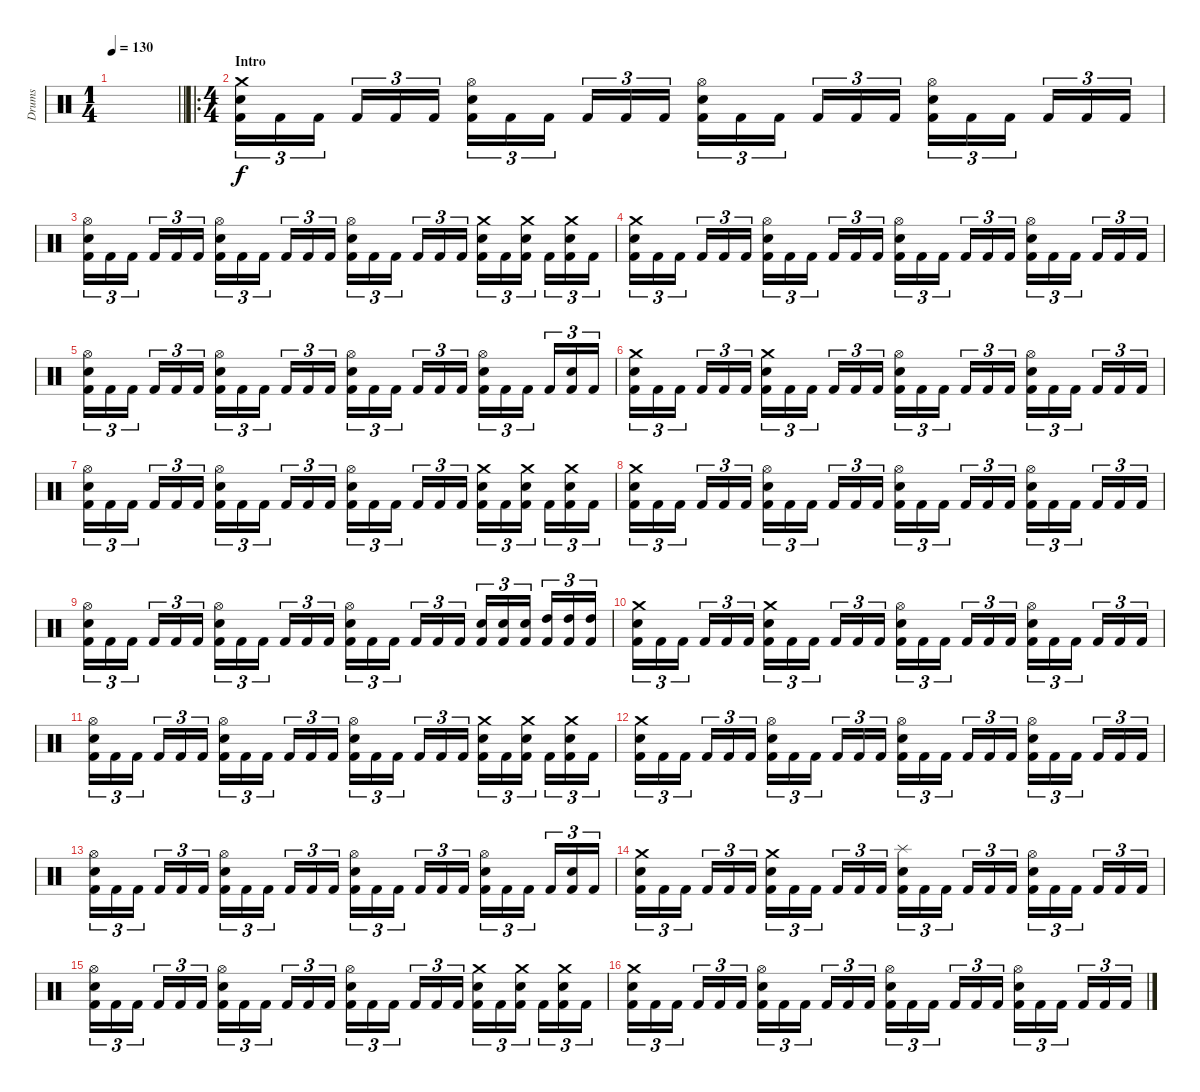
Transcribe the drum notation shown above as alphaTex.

\track ("Drums" "Drums") {instrument percussion}
\staff {score}
\articulation defaults
\ts (1 4)
\tempo 130
\clef neutral
\barLineRight lightlight
\ks c
|
\ro
\ts (4 4)
\section ("" "Intro")
("Kick (hit) 2" "Electric Snare (hit)" "Crash medium (hit)").16{tu (3 2)} "Kick (hit) 2".16{tu (3 2)} "Kick (hit) 2".16{tu (3 2)} "Kick (hit) 2".16{tu (3 2)} "Kick (hit) 2".16{tu (3 2)} "Kick (hit) 2".16{tu (3 2)} ("Kick (hit) 2" "Electric Snare (hit)" "Hi-Hat (open)").16{tu (3 2)} "Kick (hit) 2".16{tu (3 2)} "Kick (hit) 2".16{tu (3 2)} "Kick (hit) 2".16{tu (3 2)} "Kick (hit) 2".16{tu (3 2)} "Kick (hit) 2".16{tu (3 2)} ("Kick (hit) 2" "Electric Snare (hit)" "Hi-Hat (open)").16{tu (3 2)} "Kick (hit) 2".16{tu (3 2)} "Kick (hit) 2".16{tu (3 2)} "Kick (hit) 2".16{tu (3 2)} "Kick (hit) 2".16{tu (3 2)} "Kick (hit) 2".16{tu (3 2)} ("Kick (hit) 2" "Electric Snare (hit)" "Hi-Hat (open)").16{tu (3 2)} "Kick (hit) 2".16{tu (3 2)} "Kick (hit) 2".16{tu (3 2)} "Kick (hit) 2".16{tu (3 2)} "Kick (hit) 2".16{tu (3 2)} "Kick (hit) 2".16{tu (3 2)} |
("Kick (hit) 2" "Electric Snare (hit)" "Hi-Hat (open)").16{tu (3 2)} "Kick (hit) 2".16{tu (3 2)} "Kick (hit) 2".16{tu (3 2)} "Kick (hit) 2".16{tu (3 2)} "Kick (hit) 2".16{tu (3 2)} "Kick (hit) 2".16{tu (3 2)} ("Kick (hit) 2" "Electric Snare (hit)" "Hi-Hat (open)").16{tu (3 2)} "Kick (hit) 2".16{tu (3 2)} "Kick (hit) 2".16{tu (3 2)} "Kick (hit) 2".16{tu (3 2)} "Kick (hit) 2".16{tu (3 2)} "Kick (hit) 2".16{tu (3 2)} ("Kick (hit) 2" "Electric Snare (hit)" "Hi-Hat (open)").16{tu (3 2)} "Kick (hit) 2".16{tu (3 2)} "Kick (hit) 2".16{tu (3 2)} "Kick (hit) 2".16{tu (3 2)} "Kick (hit) 2".16{tu (3 2)} "Kick (hit) 2".16{tu (3 2)} ("Kick (hit) 2" "Electric Snare (hit)" "Crash medium (hit)").16{tu (3 2)} "Kick (hit) 2".16{tu (3 2)} ("Kick (hit) 2" "Electric Snare (hit)" "Crash medium (hit)").16{tu (3 2)} "Kick (hit) 2".16{tu (3 2)} ("Kick (hit) 2" "Electric Snare (hit)" "Crash medium (hit)").16{tu (3 2)} "Kick (hit) 2".16{tu (3 2)} |
("Kick (hit) 2" "Electric Snare (hit)" "Crash medium (hit)").16{tu (3 2)} "Kick (hit) 2".16{tu (3 2)} "Kick (hit) 2".16{tu (3 2)} "Kick (hit) 2".16{tu (3 2)} "Kick (hit) 2".16{tu (3 2)} "Kick (hit) 2".16{tu (3 2)} ("Kick (hit) 2" "Electric Snare (hit)" "Hi-Hat (open)").16{tu (3 2)} "Kick (hit) 2".16{tu (3 2)} "Kick (hit) 2".16{tu (3 2)} "Kick (hit) 2".16{tu (3 2)} "Kick (hit) 2".16{tu (3 2)} "Kick (hit) 2".16{tu (3 2)} ("Kick (hit) 2" "Electric Snare (hit)" "Hi-Hat (open)").16{tu (3 2)} "Kick (hit) 2".16{tu (3 2)} "Kick (hit) 2".16{tu (3 2)} "Kick (hit) 2".16{tu (3 2)} "Kick (hit) 2".16{tu (3 2)} "Kick (hit) 2".16{tu (3 2)} ("Kick (hit) 2" "Electric Snare (hit)" "Hi-Hat (open)").16{tu (3 2)} "Kick (hit) 2".16{tu (3 2)} "Kick (hit) 2".16{tu (3 2)} "Kick (hit) 2".16{tu (3 2)} "Kick (hit) 2".16{tu (3 2)} "Kick (hit) 2".16{tu (3 2)} |
("Kick (hit) 2" "Electric Snare (hit)" "Hi-Hat (open)").16{tu (3 2)} "Kick (hit) 2".16{tu (3 2)} "Kick (hit) 2".16{tu (3 2)} "Kick (hit) 2".16{tu (3 2)} "Kick (hit) 2".16{tu (3 2)} "Kick (hit) 2".16{tu (3 2)} ("Kick (hit) 2" "Electric Snare (hit)" "Hi-Hat (open)").16{tu (3 2)} "Kick (hit) 2".16{tu (3 2)} "Kick (hit) 2".16{tu (3 2)} "Kick (hit) 2".16{tu (3 2)} "Kick (hit) 2".16{tu (3 2)} "Kick (hit) 2".16{tu (3 2)} ("Kick (hit) 2" "Electric Snare (hit)" "Hi-Hat (open)").16{tu (3 2)} "Kick (hit) 2".16{tu (3 2)} "Kick (hit) 2".16{tu (3 2)} "Kick (hit) 2".16{tu (3 2)} "Kick (hit) 2".16{tu (3 2)} "Kick (hit) 2".16{tu (3 2)} ("Kick (hit) 2" "Electric Snare (hit)" "Hi-Hat (open)").16{tu (3 2)} "Kick (hit) 2".16{tu (3 2)} "Kick (hit) 2".16{tu (3 2)} "Kick (hit) 2".16{tu (3 2)} ("Kick (hit) 2" "Electric Snare (hit)").16{tu (3 2)} "Kick (hit) 2".16{tu (3 2)} |
("Kick (hit) 2" "Electric Snare (hit)" "Crash medium (hit)").16{tu (3 2)} "Kick (hit) 2".16{tu (3 2)} "Kick (hit) 2".16{tu (3 2)} "Kick (hit) 2".16{tu (3 2)} "Kick (hit) 2".16{tu (3 2)} "Kick (hit) 2".16{tu (3 2)} ("Kick (hit) 2" "Electric Snare (hit)" "Crash medium (hit)").16{tu (3 2)} "Kick (hit) 2".16{tu (3 2)} "Kick (hit) 2".16{tu (3 2)} "Kick (hit) 2".16{tu (3 2)} "Kick (hit) 2".16{tu (3 2)} "Kick (hit) 2".16{tu (3 2)} ("Kick (hit) 2" "Electric Snare (hit)" "Hi-Hat (open)").16{tu (3 2)} "Kick (hit) 2".16{tu (3 2)} "Kick (hit) 2".16{tu (3 2)} "Kick (hit) 2".16{tu (3 2)} "Kick (hit) 2".16{tu (3 2)} "Kick (hit) 2".16{tu (3 2)} ("Kick (hit) 2" "Electric Snare (hit)" "Hi-Hat (open)").16{tu (3 2)} "Kick (hit) 2".16{tu (3 2)} "Kick (hit) 2".16{tu (3 2)} "Kick (hit) 2".16{tu (3 2)} "Kick (hit) 2".16{tu (3 2)} "Kick (hit) 2".16{tu (3 2)} |
("Kick (hit) 2" "Electric Snare (hit)" "Hi-Hat (open)").16{tu (3 2)} "Kick (hit) 2".16{tu (3 2)} "Kick (hit) 2".16{tu (3 2)} "Kick (hit) 2".16{tu (3 2)} "Kick (hit) 2".16{tu (3 2)} "Kick (hit) 2".16{tu (3 2)} ("Kick (hit) 2" "Electric Snare (hit)" "Hi-Hat (open)").16{tu (3 2)} "Kick (hit) 2".16{tu (3 2)} "Kick (hit) 2".16{tu (3 2)} "Kick (hit) 2".16{tu (3 2)} "Kick (hit) 2".16{tu (3 2)} "Kick (hit) 2".16{tu (3 2)} ("Kick (hit) 2" "Electric Snare (hit)" "Hi-Hat (open)").16{tu (3 2)} "Kick (hit) 2".16{tu (3 2)} "Kick (hit) 2".16{tu (3 2)} "Kick (hit) 2".16{tu (3 2)} "Kick (hit) 2".16{tu (3 2)} "Kick (hit) 2".16{tu (3 2)} ("Kick (hit) 2" "Electric Snare (hit)" "Crash medium (hit)").16{tu (3 2)} "Kick (hit) 2".16{tu (3 2)} ("Kick (hit) 2" "Electric Snare (hit)" "Crash medium (hit)").16{tu (3 2)} "Kick (hit) 2".16{tu (3 2)} ("Kick (hit) 2" "Electric Snare (hit)" "Crash medium (hit)").16{tu (3 2)} "Kick (hit) 2".16{tu (3 2)} |
("Kick (hit) 2" "Electric Snare (hit)" "Crash medium (hit)").16{tu (3 2)} "Kick (hit) 2".16{tu (3 2)} "Kick (hit) 2".16{tu (3 2)} "Kick (hit) 2".16{tu (3 2)} "Kick (hit) 2".16{tu (3 2)} "Kick (hit) 2".16{tu (3 2)} ("Kick (hit) 2" "Electric Snare (hit)" "Hi-Hat (open)").16{tu (3 2)} "Kick (hit) 2".16{tu (3 2)} "Kick (hit) 2".16{tu (3 2)} "Kick (hit) 2".16{tu (3 2)} "Kick (hit) 2".16{tu (3 2)} "Kick (hit) 2".16{tu (3 2)} ("Kick (hit) 2" "Electric Snare (hit)" "Hi-Hat (open)").16{tu (3 2)} "Kick (hit) 2".16{tu (3 2)} "Kick (hit) 2".16{tu (3 2)} "Kick (hit) 2".16{tu (3 2)} "Kick (hit) 2".16{tu (3 2)} "Kick (hit) 2".16{tu (3 2)} ("Kick (hit) 2" "Electric Snare (hit)" "Hi-Hat (open)").16{tu (3 2)} "Kick (hit) 2".16{tu (3 2)} "Kick (hit) 2".16{tu (3 2)} "Kick (hit) 2".16{tu (3 2)} "Kick (hit) 2".16{tu (3 2)} "Kick (hit) 2".16{tu (3 2)} |
("Kick (hit) 2" "Electric Snare (hit)" "Hi-Hat (open)").16{tu (3 2)} "Kick (hit) 2".16{tu (3 2)} "Kick (hit) 2".16{tu (3 2)} "Kick (hit) 2".16{tu (3 2)} "Kick (hit) 2".16{tu (3 2)} "Kick (hit) 2".16{tu (3 2)} ("Kick (hit) 2" "Electric Snare (hit)" "Hi-Hat (open)").16{tu (3 2)} "Kick (hit) 2".16{tu (3 2)} "Kick (hit) 2".16{tu (3 2)} "Kick (hit) 2".16{tu (3 2)} "Kick (hit) 2".16{tu (3 2)} "Kick (hit) 2".16{tu (3 2)} ("Kick (hit) 2" "Electric Snare (hit)" "Hi-Hat (open)").16{tu (3 2)} "Kick (hit) 2".16{tu (3 2)} "Kick (hit) 2".16{tu (3 2)} "Kick (hit) 2".16{tu (3 2)} "Kick (hit) 2".16{tu (3 2)} "Kick (hit) 2".16{tu (3 2)} ("Kick (hit) 2" "Electric Snare (hit)").16{tu (3 2)} ("Kick (hit) 2" "Electric Snare (hit)").16{tu (3 2)} ("Kick (hit) 2" "Electric Snare (hit)").16{tu (3 2)} ("Kick (hit) 2" "High Tom (hit)").16{tu (3 2)} ("Kick (hit) 2" "High Tom (hit)").16{tu (3 2)} ("Kick (hit) 2" "High Tom (hit)").16{tu (3 2)} |
("Kick (hit) 2" "Electric Snare (hit)" "Crash medium (hit)").16{tu (3 2)} "Kick (hit) 2".16{tu (3 2)} "Kick (hit) 2".16{tu (3 2)} "Kick (hit) 2".16{tu (3 2)} "Kick (hit) 2".16{tu (3 2)} "Kick (hit) 2".16{tu (3 2)} ("Kick (hit) 2" "Electric Snare (hit)" "Crash medium (hit)").16{tu (3 2)} "Kick (hit) 2".16{tu (3 2)} "Kick (hit) 2".16{tu (3 2)} "Kick (hit) 2".16{tu (3 2)} "Kick (hit) 2".16{tu (3 2)} "Kick (hit) 2".16{tu (3 2)} ("Kick (hit) 2" "Electric Snare (hit)" "Hi-Hat (open)").16{tu (3 2)} "Kick (hit) 2".16{tu (3 2)} "Kick (hit) 2".16{tu (3 2)} "Kick (hit) 2".16{tu (3 2)} "Kick (hit) 2".16{tu (3 2)} "Kick (hit) 2".16{tu (3 2)} ("Kick (hit) 2" "Electric Snare (hit)" "Hi-Hat (open)").16{tu (3 2)} "Kick (hit) 2".16{tu (3 2)} "Kick (hit) 2".16{tu (3 2)} "Kick (hit) 2".16{tu (3 2)} "Kick (hit) 2".16{tu (3 2)} "Kick (hit) 2".16{tu (3 2)} |
("Kick (hit) 2" "Electric Snare (hit)" "Hi-Hat (open)").16{tu (3 2)} "Kick (hit) 2".16{tu (3 2)} "Kick (hit) 2".16{tu (3 2)} "Kick (hit) 2".16{tu (3 2)} "Kick (hit) 2".16{tu (3 2)} "Kick (hit) 2".16{tu (3 2)} ("Kick (hit) 2" "Electric Snare (hit)" "Hi-Hat (open)").16{tu (3 2)} "Kick (hit) 2".16{tu (3 2)} "Kick (hit) 2".16{tu (3 2)} "Kick (hit) 2".16{tu (3 2)} "Kick (hit) 2".16{tu (3 2)} "Kick (hit) 2".16{tu (3 2)} ("Kick (hit) 2" "Electric Snare (hit)" "Hi-Hat (open)").16{tu (3 2)} "Kick (hit) 2".16{tu (3 2)} "Kick (hit) 2".16{tu (3 2)} "Kick (hit) 2".16{tu (3 2)} "Kick (hit) 2".16{tu (3 2)} "Kick (hit) 2".16{tu (3 2)} ("Kick (hit) 2" "Electric Snare (hit)" "Crash medium (hit)").16{tu (3 2)} "Kick (hit) 2".16{tu (3 2)} ("Kick (hit) 2" "Electric Snare (hit)" "Crash medium (hit)").16{tu (3 2)} "Kick (hit) 2".16{tu (3 2)} ("Kick (hit) 2" "Electric Snare (hit)" "Crash medium (hit)").16{tu (3 2)} "Kick (hit) 2".16{tu (3 2)} |
("Kick (hit) 2" "Electric Snare (hit)" "Crash medium (hit)").16{tu (3 2)} "Kick (hit) 2".16{tu (3 2)} "Kick (hit) 2".16{tu (3 2)} "Kick (hit) 2".16{tu (3 2)} "Kick (hit) 2".16{tu (3 2)} "Kick (hit) 2".16{tu (3 2)} ("Kick (hit) 2" "Electric Snare (hit)" "Hi-Hat (open)").16{tu (3 2)} "Kick (hit) 2".16{tu (3 2)} "Kick (hit) 2".16{tu (3 2)} "Kick (hit) 2".16{tu (3 2)} "Kick (hit) 2".16{tu (3 2)} "Kick (hit) 2".16{tu (3 2)} ("Kick (hit) 2" "Electric Snare (hit)" "Hi-Hat (open)").16{tu (3 2)} "Kick (hit) 2".16{tu (3 2)} "Kick (hit) 2".16{tu (3 2)} "Kick (hit) 2".16{tu (3 2)} "Kick (hit) 2".16{tu (3 2)} "Kick (hit) 2".16{tu (3 2)} ("Kick (hit) 2" "Electric Snare (hit)" "Hi-Hat (open)").16{tu (3 2)} "Kick (hit) 2".16{tu (3 2)} "Kick (hit) 2".16{tu (3 2)} "Kick (hit) 2".16{tu (3 2)} "Kick (hit) 2".16{tu (3 2)} "Kick (hit) 2".16{tu (3 2)} |
("Kick (hit) 2" "Electric Snare (hit)" "Hi-Hat (open)").16{tu (3 2)} "Kick (hit) 2".16{tu (3 2)} "Kick (hit) 2".16{tu (3 2)} "Kick (hit) 2".16{tu (3 2)} "Kick (hit) 2".16{tu (3 2)} "Kick (hit) 2".16{tu (3 2)} ("Kick (hit) 2" "Electric Snare (hit)" "Hi-Hat (open)").16{tu (3 2)} "Kick (hit) 2".16{tu (3 2)} "Kick (hit) 2".16{tu (3 2)} "Kick (hit) 2".16{tu (3 2)} "Kick (hit) 2".16{tu (3 2)} "Kick (hit) 2".16{tu (3 2)} ("Kick (hit) 2" "Electric Snare (hit)" "Hi-Hat (open)").16{tu (3 2)} "Kick (hit) 2".16{tu (3 2)} "Kick (hit) 2".16{tu (3 2)} "Kick (hit) 2".16{tu (3 2)} "Kick (hit) 2".16{tu (3 2)} "Kick (hit) 2".16{tu (3 2)} ("Kick (hit) 2" "Electric Snare (hit)" "Hi-Hat (open)").16{tu (3 2)} "Kick (hit) 2".16{tu (3 2)} "Kick (hit) 2".16{tu (3 2)} "Kick (hit) 2".16{tu (3 2)} ("Kick (hit) 2" "Electric Snare (hit)").16{tu (3 2)} "Kick (hit) 2".16{tu (3 2)} |
("Kick (hit) 2" "Electric Snare (hit)" "Crash medium (hit)").16{tu (3 2)} "Kick (hit) 2".16{tu (3 2)} "Kick (hit) 2".16{tu (3 2)} "Kick (hit) 2".16{tu (3 2)} "Kick (hit) 2".16{tu (3 2)} "Kick (hit) 2".16{tu (3 2)} ("Kick (hit) 2" "Electric Snare (hit)" "Crash medium (hit)").16{tu (3 2)} "Kick (hit) 2".16{tu (3 2)} "Kick (hit) 2".16{tu (3 2)} "Kick (hit) 2".16{tu (3 2)} "Kick (hit) 2".16{tu (3 2)} "Kick (hit) 2".16{tu (3 2)} ("Kick (hit) 2" "Electric Snare (hit)" "Splash (hit)").16{tu (3 2)} "Kick (hit) 2".16{tu (3 2)} "Kick (hit) 2".16{tu (3 2)} "Kick (hit) 2".16{tu (3 2)} "Kick (hit) 2".16{tu (3 2)} "Kick (hit) 2".16{tu (3 2)} ("Kick (hit) 2" "Electric Snare (hit)" "Hi-Hat (open)").16{tu (3 2)} "Kick (hit) 2".16{tu (3 2)} "Kick (hit) 2".16{tu (3 2)} "Kick (hit) 2".16{tu (3 2)} "Kick (hit) 2".16{tu (3 2)} "Kick (hit) 2".16{tu (3 2)} |
("Kick (hit) 2" "Electric Snare (hit)" "Hi-Hat (open)").16{tu (3 2)} "Kick (hit) 2".16{tu (3 2)} "Kick (hit) 2".16{tu (3 2)} "Kick (hit) 2".16{tu (3 2)} "Kick (hit) 2".16{tu (3 2)} "Kick (hit) 2".16{tu (3 2)} ("Kick (hit) 2" "Electric Snare (hit)" "Hi-Hat (open)").16{tu (3 2)} "Kick (hit) 2".16{tu (3 2)} "Kick (hit) 2".16{tu (3 2)} "Kick (hit) 2".16{tu (3 2)} "Kick (hit) 2".16{tu (3 2)} "Kick (hit) 2".16{tu (3 2)} ("Kick (hit) 2" "Electric Snare (hit)" "Hi-Hat (open)").16{tu (3 2)} "Kick (hit) 2".16{tu (3 2)} "Kick (hit) 2".16{tu (3 2)} "Kick (hit) 2".16{tu (3 2)} "Kick (hit) 2".16{tu (3 2)} "Kick (hit) 2".16{tu (3 2)} ("Kick (hit) 2" "Electric Snare (hit)" "Crash medium (hit)").16{tu (3 2)} "Kick (hit) 2".16{tu (3 2)} ("Kick (hit) 2" "Electric Snare (hit)" "Crash medium (hit)").16{tu (3 2)} "Kick (hit) 2".16{tu (3 2)} ("Kick (hit) 2" "Electric Snare (hit)" "Crash medium (hit)").16{tu (3 2)} "Kick (hit) 2".16{tu (3 2)} |
("Kick (hit) 2" "Electric Snare (hit)" "Crash medium (hit)").16{tu (3 2)} "Kick (hit) 2".16{tu (3 2)} "Kick (hit) 2".16{tu (3 2)} "Kick (hit) 2".16{tu (3 2)} "Kick (hit) 2".16{tu (3 2)} "Kick (hit) 2".16{tu (3 2)} ("Kick (hit) 2" "Electric Snare (hit)" "Hi-Hat (open)").16{tu (3 2)} "Kick (hit) 2".16{tu (3 2)} "Kick (hit) 2".16{tu (3 2)} "Kick (hit) 2".16{tu (3 2)} "Kick (hit) 2".16{tu (3 2)} "Kick (hit) 2".16{tu (3 2)} ("Kick (hit) 2" "Electric Snare (hit)" "Hi-Hat (open)").16{tu (3 2)} "Kick (hit) 2".16{tu (3 2)} "Kick (hit) 2".16{tu (3 2)} "Kick (hit) 2".16{tu (3 2)} "Kick (hit) 2".16{tu (3 2)} "Kick (hit) 2".16{tu (3 2)} ("Kick (hit) 2" "Electric Snare (hit)" "Hi-Hat (open)").16{tu (3 2)} "Kick (hit) 2".16{tu (3 2)} "Kick (hit) 2".16{tu (3 2)} "Kick (hit) 2".16{tu (3 2)} "Kick (hit) 2".16{tu (3 2)} "Kick (hit) 2".16{tu (3 2)}
